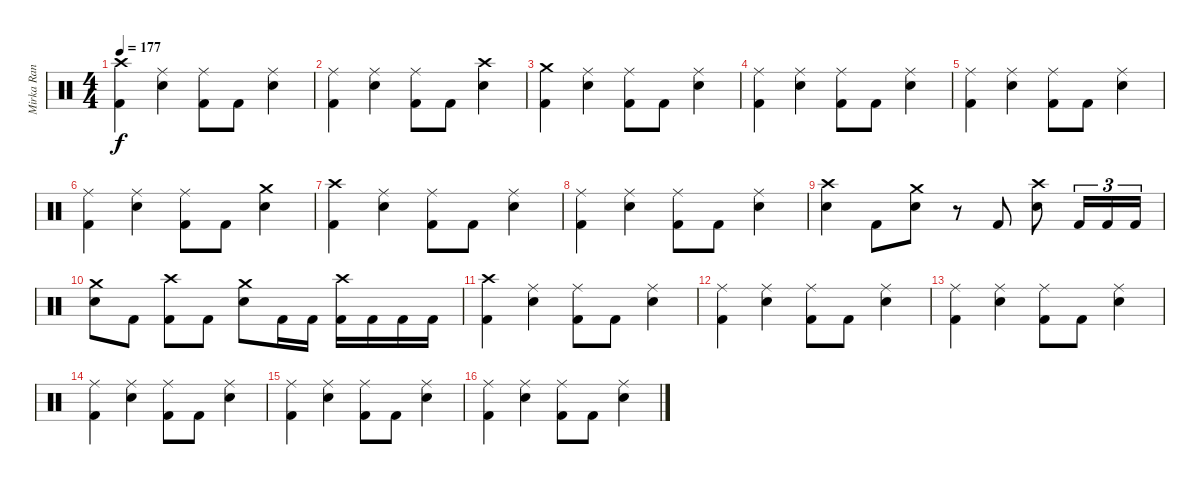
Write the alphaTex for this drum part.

\track (" Mirka Rantanen" " Mirka Ran") {instrument percussion}
\staff {score}
\articulation defaults
\ts (4 4)
\tempo 177
\clef neutral
\ks c
("Crash high (hit)" "Kick (hit) 2").4{dy f} ("Ride (middle)" "Electric Snare (hit)").4 ("Ride (middle)" "Kick (hit) 2").8 "Kick (hit) 2".8 ("Ride (middle)" "Electric Snare (hit)").4 |
("Ride (middle)" "Kick (hit) 2").4 ("Ride (middle)" "Electric Snare (hit)").4 ("Ride (middle)" "Kick (hit) 2").8 "Kick (hit) 2".8 ("Crash high (hit)" "Electric Snare (hit)").4 |
("Crash medium (hit)" "Kick (hit) 2").4 ("Ride (middle)" "Electric Snare (hit)").4 ("Ride (middle)" "Kick (hit) 2").8 "Kick (hit) 2".8 ("Ride (middle)" "Electric Snare (hit)").4 |
("Ride (middle)" "Kick (hit) 2").4 ("Ride (middle)" "Electric Snare (hit)").4 ("Ride (middle)" "Kick (hit) 2").8 "Kick (hit) 2".8 ("Ride (middle)" "Electric Snare (hit)").4 |
("Ride (middle)" "Kick (hit) 2").4 ("Ride (middle)" "Electric Snare (hit)").4 ("Ride (middle)" "Kick (hit) 2").8 "Kick (hit) 2".8 ("Ride (middle)" "Electric Snare (hit)").4 |
("Ride (middle)" "Kick (hit) 2").4 ("Ride (middle)" "Electric Snare (hit)").4 ("Ride (middle)" "Kick (hit) 2").8 "Kick (hit) 2".8 ("Crash medium (hit)" "Electric Snare (hit)").4 |
("Crash high (hit)" "Kick (hit) 2").4 ("Ride (middle)" "Electric Snare (hit)").4 ("Ride (middle)" "Kick (hit) 2").8 "Kick (hit) 2".8 ("Ride (middle)" "Electric Snare (hit)").4 |
("Ride (middle)" "Kick (hit) 2").4 ("Ride (middle)" "Electric Snare (hit)").4 ("Ride (middle)" "Kick (hit) 2").8 "Kick (hit) 2".8 ("Ride (middle)" "Electric Snare (hit)").4 |
("Crash high (hit)" "Electric Snare (hit)").4 "Kick (hit) 2".8 ("Crash medium (hit)" "Electric Snare (hit)").8 r.8 "Kick (hit) 2".8 ("Crash high (hit)" "Electric Snare (hit)").8 "Kick (hit) 2".16{tu (3 2)} "Kick (hit) 2".16{tu (3 2)} "Kick (hit) 2".16{tu (3 2)} |
("Crash medium (hit)" "Electric Snare (hit)").8 "Kick (hit) 2".8 ("Crash high (hit)" "Kick (hit) 2").8 "Kick (hit) 2".8 ("Crash medium (hit)" "Electric Snare (hit)").8 "Kick (hit) 2".16 "Kick (hit) 2".16 ("Crash high (hit)" "Kick (hit) 2").16 "Kick (hit) 2".16 "Kick (hit) 2".16 "Kick (hit) 2".16 |
("Crash high (hit)" "Kick (hit) 2").4 ("Ride (middle)" "Electric Snare (hit)").4 ("Ride (middle)" "Kick (hit) 2").8 "Kick (hit) 2".8 ("Ride (middle)" "Electric Snare (hit)").4 |
("Ride (middle)" "Kick (hit) 2").4 ("Ride (middle)" "Electric Snare (hit)").4 ("Ride (middle)" "Kick (hit) 2").8 "Kick (hit) 2".8 ("Ride (middle)" "Electric Snare (hit)").4 |
("Ride (middle)" "Kick (hit) 2").4 ("Ride (middle)" "Electric Snare (hit)").4 ("Ride (middle)" "Kick (hit) 2").8 "Kick (hit) 2".8 ("Ride (middle)" "Electric Snare (hit)").4 |
("Ride (middle)" "Kick (hit) 2").4 ("Ride (middle)" "Electric Snare (hit)").4 ("Ride (middle)" "Kick (hit) 2").8 "Kick (hit) 2".8 ("Ride (middle)" "Electric Snare (hit)").4 |
("Ride (middle)" "Kick (hit) 2").4 ("Ride (middle)" "Electric Snare (hit)").4 ("Ride (middle)" "Kick (hit) 2").8 "Kick (hit) 2".8 ("Ride (middle)" "Electric Snare (hit)").4 |
("Ride (middle)" "Kick (hit) 2").4 ("Ride (middle)" "Electric Snare (hit)").4 ("Ride (middle)" "Kick (hit) 2").8 "Kick (hit) 2".8 ("Ride (middle)" "Electric Snare (hit)").4
